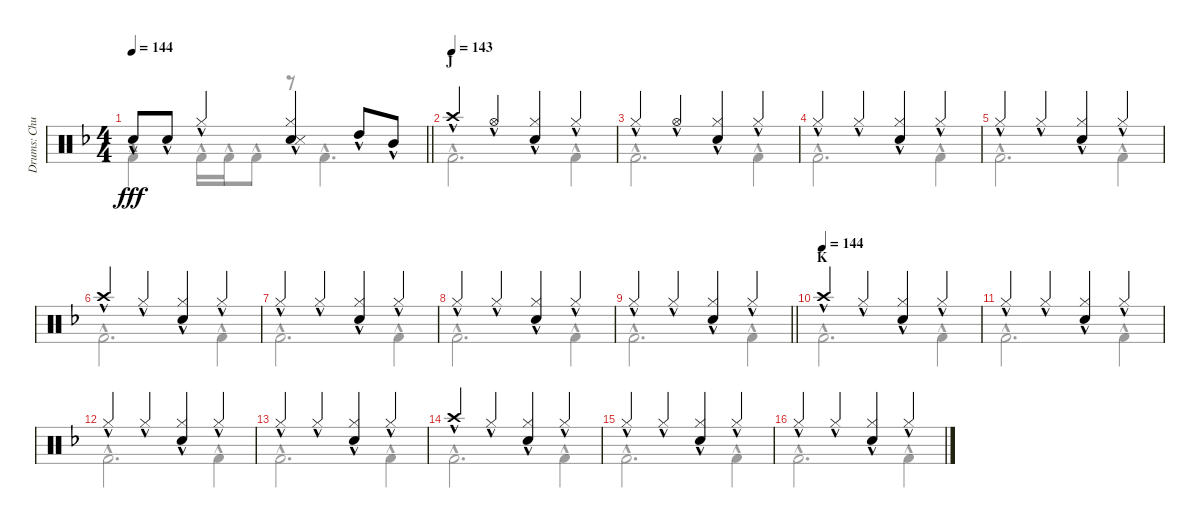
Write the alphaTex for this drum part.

\track ("Drums: Chuck" "Drums: Chu") {instrument percussion}
\staff {score}
\articulation defaults
\voice
\ts (4 4)
\tempo 144
\clef neutral
\barLineRight lightlight
\ks f "Electric Snare (hit)"{hac}.8{dy fff} "Electric Snare (hit)"{hac}.8 "Hi-Hat (closed)"{hac}.4
("Hi-Hat (closed)"{hac} "Electric Snare (hit)"{hac} "Snare (side stick) 3"{hac}).4 "High Tom (hit)"{hac}.8 "Mid Tom (hit)"{hac}.8 |
\section ("" "J")
\tempo (143)
"Crash high (hit)"{hac}.4 "Hi-Hat (open)"{hac}.4 ("Hi-Hat (closed)"{hac} "Snare (hit) 2"{hac}).4 "Hi-Hat (closed)"{hac}.4 |
"Hi-Hat (closed)"{hac}.4 "Hi-Hat (open)"{hac}.4 ("Hi-Hat (closed)"{hac} "Snare (hit) 2"{hac}).4 "Hi-Hat (closed)"{hac}.4 |
"Hi-Hat (closed)"{hac}.4 "Hi-Hat (closed)"{hac}.4 ("Hi-Hat (closed)"{hac} "Snare (hit) 2"{hac}).4 "Hi-Hat (closed)"{hac}.4 |
"Hi-Hat (closed)"{hac}.4 "Hi-Hat (closed)"{hac}.4 ("Hi-Hat (closed)"{hac} "Snare (hit) 2"{hac}).4 "Hi-Hat (closed)"{hac}.4 |
"Crash high (hit)"{hac}.4 "Hi-Hat (closed)"{hac}.4 ("Hi-Hat (closed)"{hac} "Snare (hit) 2"{hac}).4 "Hi-Hat (closed)"{hac}.4 |
"Hi-Hat (closed)"{hac}.4 "Hi-Hat (closed)"{hac}.4 ("Hi-Hat (closed)"{hac} "Snare (hit) 2"{hac}).4 "Hi-Hat (closed)"{hac}.4 |
"Hi-Hat (closed)"{hac}.4 "Hi-Hat (closed)"{hac}.4 ("Hi-Hat (closed)"{hac} "Snare (hit) 2"{hac}).4 "Hi-Hat (closed)"{hac}.4 |
\barLineRight lightlight "Hi-Hat (closed)"{hac}.4 "Hi-Hat (closed)"{hac}.4
("Hi-Hat (closed)"{hac} "Snare (hit) 2"{hac}).4 "Hi-Hat (closed)"{hac}.4 |
\section ("" "K")
\tempo (144)
"Crash high (hit)"{hac}.4 "Hi-Hat (closed)"{hac}.4 ("Hi-Hat (closed)"{hac} "Snare (hit) 2"{hac}).4 "Hi-Hat (closed)"{hac}.4 |
"Hi-Hat (closed)"{hac}.4 "Hi-Hat (closed)"{hac}.4 ("Hi-Hat (closed)"{hac} "Snare (hit) 2"{hac}).4 "Hi-Hat (closed)"{hac}.4 |
"Hi-Hat (closed)"{hac}.4 "Hi-Hat (closed)"{hac}.4 ("Hi-Hat (closed)"{hac} "Snare (hit) 2"{hac}).4 "Hi-Hat (closed)"{hac}.4 |
"Hi-Hat (closed)"{hac}.4 "Hi-Hat (closed)"{hac}.4 ("Hi-Hat (closed)"{hac} "Snare (hit) 2"{hac}).4 "Hi-Hat (closed)"{hac}.4 |
"Crash high (hit)"{hac}.4 "Hi-Hat (closed)"{hac}.4 ("Hi-Hat (closed)"{hac} "Snare (hit) 2"{hac}).4 "Hi-Hat (closed)"{hac}.4 |
"Hi-Hat (closed)"{hac}.4 "Hi-Hat (closed)"{hac}.4 ("Hi-Hat (closed)"{hac} "Snare (hit) 2"{hac}).4 "Hi-Hat (closed)"{hac}.4 |
"Hi-Hat (closed)"{hac}.4 "Hi-Hat (closed)"{hac}.4 ("Hi-Hat (closed)"{hac} "Snare (hit) 2"{hac}).4 "Hi-Hat (closed)"{hac}.4
\voice
\clef neutral
\ottava regular
\simile none
\barLineRight lightlight
\ks f "Kick (hit) 2"{hac}.4{dy fff} "Kick (hit) 2"{hac}.16 "Kick (hit) 2"{hac}.16 "Kick (hit) 2"{hac}.8
r.8 "Kick (hit) 2"{hac}.4{d} |
"Kick (hit) 2"{hac}.2{d} "Kick (hit) 2"{hac}.4 |
"Kick (hit) 2"{hac}.2{d} "Kick (hit) 2"{hac}.4 |
"Kick (hit) 2"{hac}.2{d} "Kick (hit) 2"{hac}.4 |
"Kick (hit) 2"{hac}.2{d} "Kick (hit) 2"{hac}.4 |
"Kick (hit) 2"{hac}.2{d} "Kick (hit) 2"{hac}.4 |
"Kick (hit) 2"{hac}.2{d} "Kick (hit) 2"{hac}.4 |
"Kick (hit) 2"{hac}.2{d} "Kick (hit) 2"{hac}.4 |
\barLineRight lightlight "Kick (hit) 2"{hac}.2{d} "Kick (hit) 2"{hac}.4
|
"Kick (hit) 2"{hac}.2{d} "Kick (hit) 2"{hac}.4 |
"Kick (hit) 2"{hac}.2{d} "Kick (hit) 2"{hac}.4 |
"Kick (hit) 2"{hac}.2{d} "Kick (hit) 2"{hac}.4 |
"Kick (hit) 2"{hac}.2{d} "Kick (hit) 2"{hac}.4 |
"Kick (hit) 2"{hac}.2{d} "Kick (hit) 2"{hac}.4 |
"Kick (hit) 2"{hac}.2{d} "Kick (hit) 2"{hac}.4 |
"Kick (hit) 2"{hac}.2{d} "Kick (hit) 2"{hac}.4
